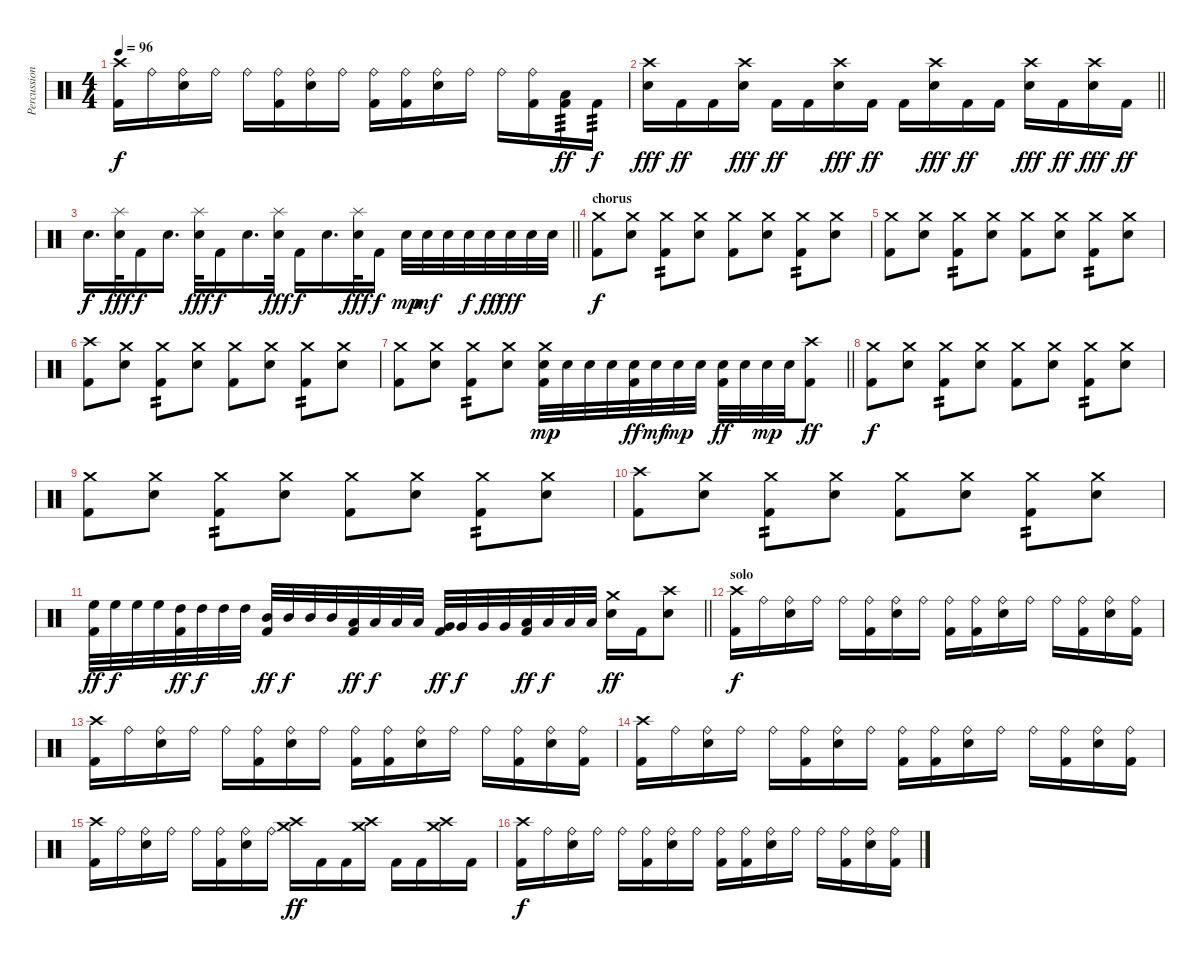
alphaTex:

\track ("Percussion" "Percussion") {instrument percussion}
\staff {score}
\articulation defaults
\ts (4 4)
\tempo 96
\clef neutral
\ks c
("Crash high (hit)" "Kick (hit) 2").16{dy f} "Ride (bell)".16 ("Ride (bell)" "Electric Snare (hit)").16 "Ride (bell)".16 "Ride (bell)".16 ("Ride (bell)" "Kick (hit) 2").16 ("Ride (bell)" "Electric Snare (hit)").16 "Ride (bell)".16 ("Ride (bell)" "Kick (hit) 2").16 ("Ride (bell)" "Kick (hit) 2").16 ("Ride (bell)" "Electric Snare (hit)").16 "Ride (bell)".16 "Ride (bell)".16 ("Ride (bell)" "Kick (hit) 2").16 ("Low Tom (hit)" "Kick (hit) 2").16{tp 3 dy ff} "Kick (hit) 2".16{tp 3 dy f} |
\barLineRight lightlight
("Crash high (hit)" "Electric Snare (hit)").16{dy fff} "Kick (hit) 2".16{dy ff} "Kick (hit) 2".16 ("Crash high (hit)" "Electric Snare (hit)").16{dy fff} "Kick (hit) 2".16{dy ff} "Kick (hit) 2".16 ("Crash high (hit)" "Electric Snare (hit)").16{dy fff} "Kick (hit) 2".16{dy ff} "Kick (hit) 2".16 ("Crash high (hit)" "Electric Snare (hit)").16{dy fff} "Kick (hit) 2".16{dy ff} "Kick (hit) 2".16 ("Crash high (hit)" "Electric Snare (hit)").16{dy fff} "Kick (hit) 2".16{dy ff} ("Crash high (hit)" "Electric Snare (hit)").16{dy fff} "Kick (hit) 2".16{dy ff} |
\barLineRight lightlight "Electric Snare (hit)".16{d dy f}
("Splash (hit)" "Electric Snare (hit)").32{dy fff} "Kick (hit) 2".16{dy f} "Electric Snare (hit)".16{d} ("Splash (hit)" "Electric Snare (hit)").32{dy fff} "Kick (hit) 2".16{dy f} "Electric Snare (hit)".16{d} ("Splash (hit)" "Electric Snare (hit)").32{dy fff} "Kick (hit) 2".16{dy f} "Electric Snare (hit)".16{d} ("Splash (hit)" "Electric Snare (hit)").32{dy fff} "Kick (hit) 2".16{dy f} "Electric Snare (hit)".32{dy mp} "Electric Snare (hit)".32{dy mf} "Electric Snare (hit)".32 "Electric Snare (hit)".32{dy f} "Electric Snare (hit)".32{dy ff} "Electric Snare (hit)".32{dy fff} "Electric Snare (hit)".32 "Electric Snare (hit)".32 |
\section ("" "chorus")
("Crash medium (hit)" "Kick (hit) 2").8{dy f} ("Crash medium (hit)" "Electric Snare (hit)").8 ("Crash medium (hit)" "Kick (hit) 2").8{tp 2} ("Crash medium (hit)" "Electric Snare (hit)").8 ("Crash medium (hit)" "Kick (hit) 2").8 ("Crash medium (hit)" "Electric Snare (hit)").8 ("Crash medium (hit)" "Kick (hit) 2").8{tp 2} ("Crash medium (hit)" "Electric Snare (hit)").8 |
("Crash medium (hit)" "Kick (hit) 2").8 ("Crash medium (hit)" "Electric Snare (hit)").8 ("Crash medium (hit)" "Kick (hit) 2").8{tp 2} ("Crash medium (hit)" "Electric Snare (hit)").8 ("Crash medium (hit)" "Kick (hit) 2").8 ("Crash medium (hit)" "Electric Snare (hit)").8 ("Crash medium (hit)" "Kick (hit) 2").8{tp 2} ("Crash medium (hit)" "Electric Snare (hit)").8 |
("Crash high (hit)" "Kick (hit) 2").8 ("Crash medium (hit)" "Electric Snare (hit)").8 ("Crash medium (hit)" "Kick (hit) 2").8{tp 2} ("Crash medium (hit)" "Electric Snare (hit)").8 ("Crash medium (hit)" "Kick (hit) 2").8 ("Crash medium (hit)" "Electric Snare (hit)").8 ("Crash medium (hit)" "Kick (hit) 2").8{tp 2} ("Crash medium (hit)" "Electric Snare (hit)").8 |
\barLineRight lightlight
("Crash medium (hit)" "Kick (hit) 2").8 ("Crash medium (hit)" "Electric Snare (hit)").8 ("Crash medium (hit)" "Kick (hit) 2").8{tp 2} ("Crash medium (hit)" "Electric Snare (hit)").8 ("Crash medium (hit)" "Electric Snare (hit)" "Kick (hit) 2").32{dy mp} "Electric Snare (hit)".32 "Electric Snare (hit)".32 "Electric Snare (hit)".32 ("Electric Snare (hit)" "Kick (hit) 2").32{dy ff} "Electric Snare (hit)".32{dy mf} "Electric Snare (hit)".32{dy mp} "Electric Snare (hit)".32 ("Electric Snare (hit)" "Kick (hit) 2").32{dy ff} "Electric Snare (hit)".32 "Electric Snare (hit)".32{dy mp} "Electric Snare (hit)".32 ("Crash high (hit)" "Kick (hit) 2").8{dy ff} |
("Crash medium (hit)" "Kick (hit) 2").8{dy f} ("Crash medium (hit)" "Electric Snare (hit)").8 ("Crash medium (hit)" "Kick (hit) 2").8{tp 2} ("Crash medium (hit)" "Electric Snare (hit)").8 ("Crash medium (hit)" "Kick (hit) 2").8 ("Crash medium (hit)" "Electric Snare (hit)").8 ("Crash medium (hit)" "Kick (hit) 2").8{tp 2} ("Crash medium (hit)" "Electric Snare (hit)").8 |
("Crash medium (hit)" "Kick (hit) 2").8 ("Crash medium (hit)" "Electric Snare (hit)").8 ("Crash medium (hit)" "Kick (hit) 2").8{tp 2} ("Crash medium (hit)" "Electric Snare (hit)").8 ("Crash medium (hit)" "Kick (hit) 2").8 ("Crash medium (hit)" "Electric Snare (hit)").8 ("Crash medium (hit)" "Kick (hit) 2").8{tp 2} ("Crash medium (hit)" "Electric Snare (hit)").8 |
("Crash high (hit)" "Kick (hit) 2").8 ("Crash medium (hit)" "Electric Snare (hit)").8 ("Crash medium (hit)" "Kick (hit) 2").8{tp 2} ("Crash medium (hit)" "Electric Snare (hit)").8 ("Crash medium (hit)" "Kick (hit) 2").8 ("Crash medium (hit)" "Electric Snare (hit)").8 ("Crash medium (hit)" "Kick (hit) 2").8{tp 2} ("Crash medium (hit)" "Electric Snare (hit)").8 |
\barLineRight lightlight
("Kick (hit) 2" "High Floor Tom (hit)").32{dy ff} "High Floor Tom (hit)".32{dy f} "High Floor Tom (hit)".32 "High Floor Tom (hit)".32 ("Kick (hit) 2" "High Tom (hit)").32{dy ff} "High Tom (hit)".32{dy f} "High Tom (hit)".32 "High Tom (hit)".32 ("Kick (hit) 2" "Mid Tom (hit)").32{dy ff} "Mid Tom (hit)".32{dy f} "Mid Tom (hit)".32 "Mid Tom (hit)".32 ("Kick (hit) 2" "Low Tom (hit)").32{dy ff} "Low Tom (hit)".32{dy f} "Low Tom (hit)".32 "Low Tom (hit)".32 ("Kick (hit) 2" "Very Low Tom (hit)").32{dy ff} "Very Low Tom (hit)".32{dy f} "Very Low Tom (hit)".32 "Very Low Tom (hit)".32 ("Kick (hit) 2" "Low Floor Tom (hit)").32{dy ff} "Low Floor Tom (hit)".32{dy f} "Low Floor Tom (hit)".32 "Low Floor Tom (hit)".32 ("Crash medium (hit)" "Electric Snare (hit)").16{dy ff} "Kick (hit) 2".16 ("Crash high (hit)" "Electric Snare (hit)").8 |
\section ("" "solo")
("Crash high (hit)" "Kick (hit) 2").16{dy f} "Ride (bell)".16 ("Ride (bell)" "Electric Snare (hit)").16 "Ride (bell)".16 "Ride (bell)".16 ("Ride (bell)" "Kick (hit) 2").16 ("Ride (bell)" "Electric Snare (hit)").16 "Ride (bell)".16 ("Ride (bell)" "Kick (hit) 2").16 ("Ride (bell)" "Kick (hit) 2").16 ("Ride (bell)" "Electric Snare (hit)").16 "Ride (bell)".16 "Ride (bell)".16 ("Ride (bell)" "Kick (hit) 2").16 ("Ride (bell)" "Electric Snare (hit)").16 ("Ride (bell)" "Kick (hit) 2").16 |
("Crash high (hit)" "Kick (hit) 2").16 "Ride (bell)".16 ("Ride (bell)" "Electric Snare (hit)").16 "Ride (bell)".16 "Ride (bell)".16 ("Ride (bell)" "Kick (hit) 2").16 ("Ride (bell)" "Electric Snare (hit)").16 "Ride (bell)".16 ("Ride (bell)" "Kick (hit) 2").16 ("Ride (bell)" "Kick (hit) 2").16 ("Ride (bell)" "Electric Snare (hit)").16 "Ride (bell)".16 "Ride (bell)".16 ("Ride (bell)" "Kick (hit) 2").16 ("Ride (bell)" "Electric Snare (hit)").16 ("Ride (bell)" "Kick (hit) 2").16 |
("Crash high (hit)" "Kick (hit) 2").16 "Ride (bell)".16 ("Ride (bell)" "Electric Snare (hit)").16 "Ride (bell)".16 "Ride (bell)".16 ("Ride (bell)" "Kick (hit) 2").16 ("Ride (bell)" "Electric Snare (hit)").16 "Ride (bell)".16 ("Ride (bell)" "Kick (hit) 2").16 ("Ride (bell)" "Kick (hit) 2").16 ("Ride (bell)" "Electric Snare (hit)").16 "Ride (bell)".16 "Ride (bell)".16 ("Ride (bell)" "Kick (hit) 2").16 ("Ride (bell)" "Electric Snare (hit)").16 ("Ride (bell)" "Kick (hit) 2").16 |
("Crash high (hit)" "Kick (hit) 2").16 "Ride (bell)".16 ("Ride (bell)" "Electric Snare (hit)").16 "Ride (bell)".16 "Ride (bell)".16 ("Ride (bell)" "Kick (hit) 2").16 ("Ride (bell)" "Electric Snare (hit)").16 "Ride (bell)".16 ("Crash high (hit)" "Crash medium (hit)").16{dy ff} "Kick (hit) 2".16 "Kick (hit) 2".16 ("Crash high (hit)" "Crash medium (hit)").16 "Kick (hit) 2".16 "Kick (hit) 2".16 ("Crash high (hit)" "Crash medium (hit)").16 "Kick (hit) 2".16 |
("Crash high (hit)" "Kick (hit) 2").16{dy f} "Ride (bell)".16 ("Ride (bell)" "Electric Snare (hit)").16 "Ride (bell)".16 "Ride (bell)".16 ("Ride (bell)" "Kick (hit) 2").16 ("Ride (bell)" "Electric Snare (hit)").16 "Ride (bell)".16 ("Ride (bell)" "Kick (hit) 2").16 ("Ride (bell)" "Kick (hit) 2").16 ("Ride (bell)" "Electric Snare (hit)").16 "Ride (bell)".16 "Ride (bell)".16 ("Ride (bell)" "Kick (hit) 2").16 ("Ride (bell)" "Electric Snare (hit)").16 ("Ride (bell)" "Kick (hit) 2").16
